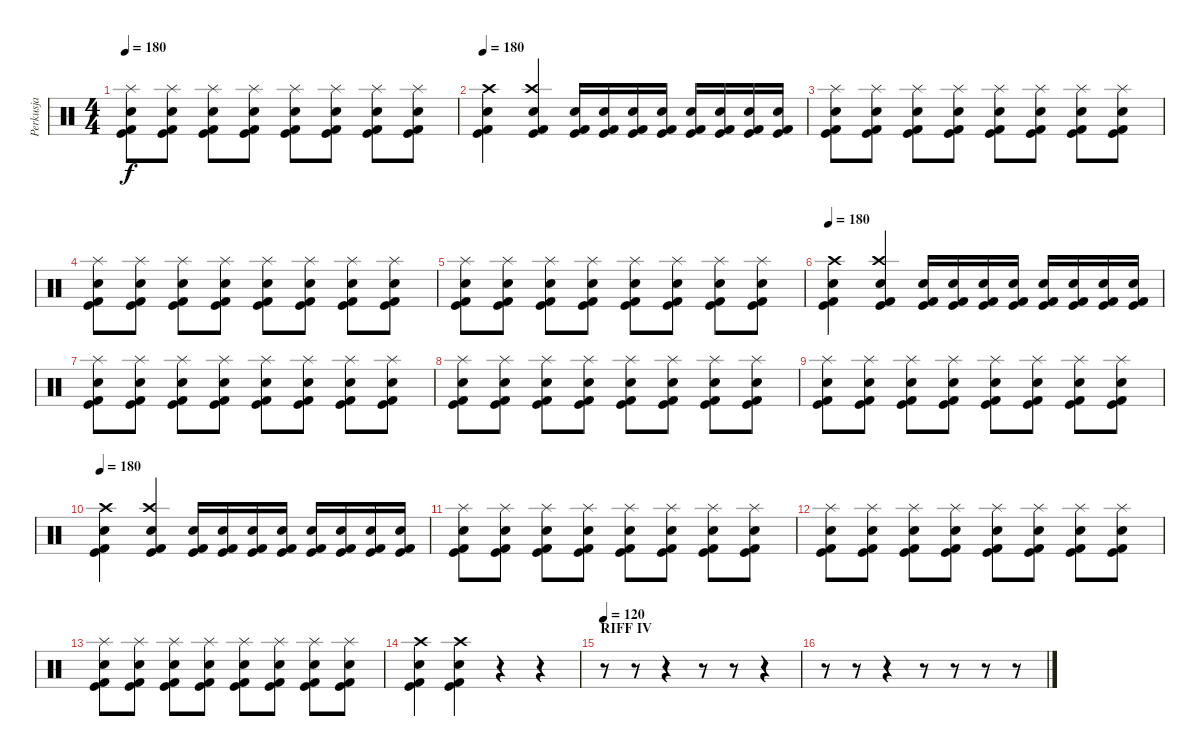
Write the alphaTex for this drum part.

\track ("Perkusja" "Perkusja") {instrument percussion}
\staff {score}
\articulation defaults
\ts (4 4)
\tempo 180
\clef neutral
\ks c
("Kick (hit)" "Kick (hit) 2" "Snare (hit) 2" "Splash (hit)").8{dy f} ("Kick (hit)" "Kick (hit) 2" "Snare (hit) 2" "Splash (hit)").8 ("Kick (hit)" "Kick (hit) 2" "Snare (hit) 2" "Splash (hit)").8 ("Kick (hit)" "Kick (hit) 2" "Snare (hit) 2" "Splash (hit)").8 ("Kick (hit)" "Kick (hit) 2" "Snare (hit) 2" "Splash (hit)").8 ("Kick (hit)" "Kick (hit) 2" "Snare (hit) 2" "Splash (hit)").8 ("Kick (hit)" "Kick (hit) 2" "Snare (hit) 2" "Splash (hit)").8 ("Kick (hit)" "Kick (hit) 2" "Snare (hit) 2" "Splash (hit)").8 |
\tempo 180
("Crash high (hit)" "Snare (hit) 2" "Kick (hit) 2" "Kick (hit)").4 ("Crash high (hit)" "Electric Snare (hit)" "Kick (hit) 2" "Kick (hit)").4 ("Snare (hit) 2" "Kick (hit) 2" "Kick (hit)").16 ("Snare (hit) 2" "Kick (hit) 2" "Kick (hit)").16 ("Snare (hit) 2" "Kick (hit) 2" "Kick (hit)").16 ("Snare (hit) 2" "Kick (hit) 2" "Kick (hit)").16 ("Snare (hit) 2" "Kick (hit) 2" "Kick (hit)").16 ("Snare (hit) 2" "Kick (hit) 2" "Kick (hit)").16 ("Snare (hit) 2" "Kick (hit) 2" "Kick (hit)").16 ("Snare (hit) 2" "Kick (hit) 2" "Kick (hit)").16 |
("Kick (hit)" "Kick (hit) 2" "Snare (hit) 2" "Splash (hit)").8 ("Kick (hit)" "Kick (hit) 2" "Snare (hit) 2" "Splash (hit)").8 ("Kick (hit)" "Kick (hit) 2" "Snare (hit) 2" "Splash (hit)").8 ("Kick (hit)" "Kick (hit) 2" "Snare (hit) 2" "Splash (hit)").8 ("Kick (hit)" "Kick (hit) 2" "Snare (hit) 2" "Splash (hit)").8 ("Kick (hit)" "Kick (hit) 2" "Snare (hit) 2" "Splash (hit)").8 ("Kick (hit)" "Kick (hit) 2" "Snare (hit) 2" "Splash (hit)").8 ("Kick (hit)" "Kick (hit) 2" "Snare (hit) 2" "Splash (hit)").8 |
("Kick (hit)" "Kick (hit) 2" "Snare (hit) 2" "Splash (hit)").8 ("Kick (hit)" "Kick (hit) 2" "Snare (hit) 2" "Splash (hit)").8 ("Kick (hit)" "Kick (hit) 2" "Snare (hit) 2" "Splash (hit)").8 ("Kick (hit)" "Kick (hit) 2" "Snare (hit) 2" "Splash (hit)").8 ("Kick (hit)" "Kick (hit) 2" "Snare (hit) 2" "Splash (hit)").8 ("Kick (hit)" "Kick (hit) 2" "Snare (hit) 2" "Splash (hit)").8 ("Kick (hit)" "Kick (hit) 2" "Snare (hit) 2" "Splash (hit)").8 ("Kick (hit)" "Kick (hit) 2" "Snare (hit) 2" "Splash (hit)").8 |
("Kick (hit)" "Kick (hit) 2" "Snare (hit) 2" "Splash (hit)").8 ("Kick (hit)" "Kick (hit) 2" "Snare (hit) 2" "Splash (hit)").8 ("Kick (hit)" "Kick (hit) 2" "Snare (hit) 2" "Splash (hit)").8 ("Kick (hit)" "Kick (hit) 2" "Snare (hit) 2" "Splash (hit)").8 ("Kick (hit)" "Kick (hit) 2" "Snare (hit) 2" "Splash (hit)").8 ("Kick (hit)" "Kick (hit) 2" "Snare (hit) 2" "Splash (hit)").8 ("Kick (hit)" "Kick (hit) 2" "Snare (hit) 2" "Splash (hit)").8 ("Kick (hit)" "Kick (hit) 2" "Snare (hit) 2" "Splash (hit)").8 |
\tempo 180
("Crash high (hit)" "Snare (hit) 2" "Kick (hit) 2" "Kick (hit)").4 ("Crash high (hit)" "Electric Snare (hit)" "Kick (hit) 2" "Kick (hit)").4 ("Snare (hit) 2" "Kick (hit) 2" "Kick (hit)").16 ("Snare (hit) 2" "Kick (hit) 2" "Kick (hit)").16 ("Snare (hit) 2" "Kick (hit) 2" "Kick (hit)").16 ("Snare (hit) 2" "Kick (hit) 2" "Kick (hit)").16 ("Snare (hit) 2" "Kick (hit) 2" "Kick (hit)").16 ("Snare (hit) 2" "Kick (hit) 2" "Kick (hit)").16 ("Snare (hit) 2" "Kick (hit) 2" "Kick (hit)").16 ("Snare (hit) 2" "Kick (hit) 2" "Kick (hit)").16 |
("Kick (hit)" "Kick (hit) 2" "Snare (hit) 2" "Splash (hit)").8 ("Kick (hit)" "Kick (hit) 2" "Snare (hit) 2" "Splash (hit)").8 ("Kick (hit)" "Kick (hit) 2" "Snare (hit) 2" "Splash (hit)").8 ("Kick (hit)" "Kick (hit) 2" "Snare (hit) 2" "Splash (hit)").8 ("Kick (hit)" "Kick (hit) 2" "Snare (hit) 2" "Splash (hit)").8 ("Kick (hit)" "Kick (hit) 2" "Snare (hit) 2" "Splash (hit)").8 ("Kick (hit)" "Kick (hit) 2" "Snare (hit) 2" "Splash (hit)").8 ("Kick (hit)" "Kick (hit) 2" "Snare (hit) 2" "Splash (hit)").8 |
("Kick (hit)" "Kick (hit) 2" "Snare (hit) 2" "Splash (hit)").8 ("Kick (hit)" "Kick (hit) 2" "Snare (hit) 2" "Splash (hit)").8 ("Kick (hit)" "Kick (hit) 2" "Snare (hit) 2" "Splash (hit)").8 ("Kick (hit)" "Kick (hit) 2" "Snare (hit) 2" "Splash (hit)").8 ("Kick (hit)" "Kick (hit) 2" "Snare (hit) 2" "Splash (hit)").8 ("Kick (hit)" "Kick (hit) 2" "Snare (hit) 2" "Splash (hit)").8 ("Kick (hit)" "Kick (hit) 2" "Snare (hit) 2" "Splash (hit)").8 ("Kick (hit)" "Kick (hit) 2" "Snare (hit) 2" "Splash (hit)").8 |
("Kick (hit)" "Kick (hit) 2" "Snare (hit) 2" "Splash (hit)").8 ("Kick (hit)" "Kick (hit) 2" "Snare (hit) 2" "Splash (hit)").8 ("Kick (hit)" "Kick (hit) 2" "Snare (hit) 2" "Splash (hit)").8 ("Kick (hit)" "Kick (hit) 2" "Snare (hit) 2" "Splash (hit)").8 ("Kick (hit)" "Kick (hit) 2" "Snare (hit) 2" "Splash (hit)").8 ("Kick (hit)" "Kick (hit) 2" "Snare (hit) 2" "Splash (hit)").8 ("Kick (hit)" "Kick (hit) 2" "Snare (hit) 2" "Splash (hit)").8 ("Kick (hit)" "Kick (hit) 2" "Snare (hit) 2" "Splash (hit)").8 |
\tempo 180
("Crash high (hit)" "Snare (hit) 2" "Kick (hit) 2" "Kick (hit)").4 ("Crash high (hit)" "Electric Snare (hit)" "Kick (hit) 2" "Kick (hit)").4 ("Snare (hit) 2" "Kick (hit) 2" "Kick (hit)").16 ("Snare (hit) 2" "Kick (hit) 2" "Kick (hit)").16 ("Snare (hit) 2" "Kick (hit) 2" "Kick (hit)").16 ("Snare (hit) 2" "Kick (hit) 2" "Kick (hit)").16 ("Snare (hit) 2" "Kick (hit) 2" "Kick (hit)").16 ("Snare (hit) 2" "Kick (hit) 2" "Kick (hit)").16 ("Snare (hit) 2" "Kick (hit) 2" "Kick (hit)").16 ("Snare (hit) 2" "Kick (hit) 2" "Kick (hit)").16 |
("Kick (hit)" "Kick (hit) 2" "Snare (hit) 2" "Splash (hit)").8 ("Kick (hit)" "Kick (hit) 2" "Snare (hit) 2" "Splash (hit)").8 ("Kick (hit)" "Kick (hit) 2" "Snare (hit) 2" "Splash (hit)").8 ("Kick (hit)" "Kick (hit) 2" "Snare (hit) 2" "Splash (hit)").8 ("Kick (hit)" "Kick (hit) 2" "Snare (hit) 2" "Splash (hit)").8 ("Kick (hit)" "Kick (hit) 2" "Snare (hit) 2" "Splash (hit)").8 ("Kick (hit)" "Kick (hit) 2" "Snare (hit) 2" "Splash (hit)").8 ("Kick (hit)" "Kick (hit) 2" "Snare (hit) 2" "Splash (hit)").8 |
("Kick (hit)" "Kick (hit) 2" "Snare (hit) 2" "Splash (hit)").8 ("Kick (hit)" "Kick (hit) 2" "Snare (hit) 2" "Splash (hit)").8 ("Kick (hit)" "Kick (hit) 2" "Snare (hit) 2" "Splash (hit)").8 ("Kick (hit)" "Kick (hit) 2" "Snare (hit) 2" "Splash (hit)").8 ("Kick (hit)" "Kick (hit) 2" "Snare (hit) 2" "Splash (hit)").8 ("Kick (hit)" "Kick (hit) 2" "Snare (hit) 2" "Splash (hit)").8 ("Kick (hit)" "Kick (hit) 2" "Snare (hit) 2" "Splash (hit)").8 ("Kick (hit)" "Kick (hit) 2" "Snare (hit) 2" "Splash (hit)").8 |
("Kick (hit)" "Kick (hit) 2" "Snare (hit) 2" "Splash (hit)").8 ("Kick (hit)" "Kick (hit) 2" "Snare (hit) 2" "Splash (hit)").8 ("Kick (hit)" "Kick (hit) 2" "Snare (hit) 2" "Splash (hit)").8 ("Kick (hit)" "Kick (hit) 2" "Snare (hit) 2" "Splash (hit)").8 ("Kick (hit)" "Kick (hit) 2" "Snare (hit) 2" "Splash (hit)").8 ("Kick (hit)" "Kick (hit) 2" "Snare (hit) 2" "Splash (hit)").8 ("Kick (hit)" "Kick (hit) 2" "Snare (hit) 2" "Splash (hit)").8 ("Kick (hit)" "Kick (hit) 2" "Snare (hit) 2" "Splash (hit)").8 |
("Crash high (hit)" "Kick (hit)" "Kick (hit) 2" "Snare (hit) 2").4 ("Crash high (hit)" "Kick (hit)" "Kick (hit) 2" "Snare (hit) 2").4 r.4 r.4 |
\section ("" "RIFF IV")
\tempo 120
r.8 r.8 r.4 r.8 r.8 r.4 |
r.8 r.8 r.4 r.8 r.8 r.8 r.8
